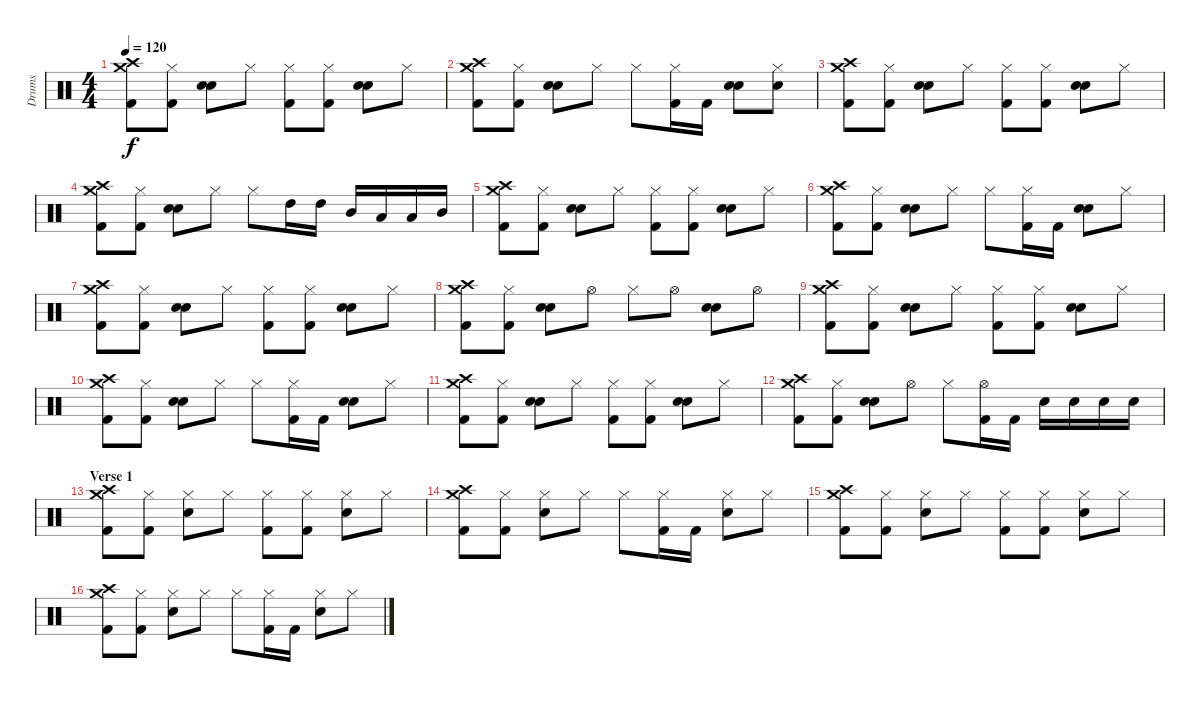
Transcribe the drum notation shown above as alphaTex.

\track ("Drums" "Drums") {instrument percussion}
\staff {score}
\articulation defaults
\ts (4 4)
\tempo 120
\clef neutral
\ks c
("Crash high (hit)" "Crash medium (hit)" "Kick (hit) 2").8{dy f} ("Hi-Hat (closed)" "Kick (hit) 2").8 ("Hand Clap (hit)" "Snare (hit) 2").8 "Hi-Hat (closed)".8 ("Hi-Hat (closed)" "Kick (hit) 2").8 ("Hi-Hat (closed)" "Kick (hit) 2").8 ("Hand Clap (hit)" "Snare (hit) 2").8 "Hi-Hat (closed)".8 |
("Crash high (hit)" "Crash medium (hit)" "Kick (hit) 2").8 ("Hi-Hat (closed)" "Kick (hit) 2").8 ("Hand Clap (hit)" "Snare (hit) 2").8 "Hi-Hat (closed)".8 "Hi-Hat (closed)".8 ("Hi-Hat (closed)" "Kick (hit) 2").16 "Kick (hit) 2".16 ("Hand Clap (hit)" "Snare (hit) 2").8 ("Hi-Hat (closed)" "Snare (hit) 2").8 |
("Crash high (hit)" "Crash medium (hit)" "Kick (hit) 2").8 ("Hi-Hat (closed)" "Kick (hit) 2").8 ("Hand Clap (hit)" "Snare (hit) 2").8 "Hi-Hat (closed)".8 ("Hi-Hat (closed)" "Kick (hit) 2").8 ("Hi-Hat (closed)" "Kick (hit) 2").8 ("Hand Clap (hit)" "Snare (hit) 2").8 "Hi-Hat (closed)".8 |
("Crash high (hit)" "Crash medium (hit)" "Kick (hit) 2").8 ("Hi-Hat (closed)" "Kick (hit) 2").8 ("Hand Clap (hit)" "Snare (hit) 2").8 "Hi-Hat (closed)".8 "Hi-Hat (closed)".8 "High Tom (hit)".16 "High Tom (hit)".16 "Mid Tom (hit)".16 "Low Tom (hit)".16 "Low Tom (hit)".16 "Mid Tom (hit)".16 |
("Crash high (hit)" "Crash medium (hit)" "Kick (hit) 2").8 ("Hi-Hat (closed)" "Kick (hit) 2").8 ("Hand Clap (hit)" "Snare (hit) 2").8 "Hi-Hat (closed)".8 ("Hi-Hat (closed)" "Kick (hit) 2").8 ("Hi-Hat (closed)" "Kick (hit) 2").8 ("Hand Clap (hit)" "Snare (hit) 2").8 "Hi-Hat (closed)".8 |
("Crash high (hit)" "Crash medium (hit)" "Kick (hit) 2").8 ("Hi-Hat (closed)" "Kick (hit) 2").8 ("Hand Clap (hit)" "Snare (hit) 2").8 "Hi-Hat (closed)".8 "Hi-Hat (closed)".8 ("Hi-Hat (closed)" "Kick (hit) 2").16 "Kick (hit) 2".16 ("Hand Clap (hit)" "Snare (hit) 2").8 "Hi-Hat (closed)".8 |
("Crash high (hit)" "Crash medium (hit)" "Kick (hit) 2").8 ("Hi-Hat (closed)" "Kick (hit) 2").8 ("Hand Clap (hit)" "Snare (hit) 2").8 "Hi-Hat (closed)".8 ("Hi-Hat (closed)" "Kick (hit) 2").8 ("Hi-Hat (closed)" "Kick (hit) 2").8 ("Hand Clap (hit)" "Snare (hit) 2").8 "Hi-Hat (closed)".8 |
("Crash high (hit)" "Crash medium (hit)" "Kick (hit) 2").8 ("Hi-Hat (closed)" "Kick (hit) 2").8 ("Hand Clap (hit)" "Snare (hit) 2").8 "Hi-Hat (open)".8 "Hi-Hat (closed)".8 "Hi-Hat (open)".8 ("Hand Clap (hit)" "Snare (hit) 2").8 "Hi-Hat (open)".8 |
("Crash high (hit)" "Crash medium (hit)" "Kick (hit) 2").8 ("Hi-Hat (closed)" "Kick (hit) 2").8 ("Hand Clap (hit)" "Snare (hit) 2").8 "Hi-Hat (closed)".8 ("Hi-Hat (closed)" "Kick (hit) 2").8 ("Hi-Hat (closed)" "Kick (hit) 2").8 ("Hand Clap (hit)" "Snare (hit) 2").8 "Hi-Hat (closed)".8 |
("Crash high (hit)" "Crash medium (hit)" "Kick (hit) 2").8 ("Hi-Hat (closed)" "Kick (hit) 2").8 ("Hand Clap (hit)" "Snare (hit) 2").8 "Hi-Hat (closed)".8 "Hi-Hat (closed)".8 ("Hi-Hat (closed)" "Kick (hit) 2").16 "Kick (hit) 2".16 ("Hand Clap (hit)" "Snare (hit) 2").8 "Hi-Hat (closed)".8 |
("Crash high (hit)" "Crash medium (hit)" "Kick (hit) 2").8 ("Hi-Hat (closed)" "Kick (hit) 2").8 ("Hand Clap (hit)" "Snare (hit) 2").8 "Hi-Hat (closed)".8 ("Hi-Hat (closed)" "Kick (hit) 2").8 ("Hi-Hat (closed)" "Kick (hit) 2").8 ("Hand Clap (hit)" "Snare (hit) 2").8 "Hi-Hat (closed)".8 |
("Crash high (hit)" "Crash medium (hit)" "Kick (hit) 2").8 ("Hi-Hat (closed)" "Kick (hit) 2").8 ("Hand Clap (hit)" "Snare (hit) 2").8 "Hi-Hat (open)".8 "Hi-Hat (closed)".8 ("Hi-Hat (open)" "Kick (hit) 2").16 "Kick (hit) 2".16 "Snare (hit) 2".16 "Snare (hit) 2".16 "Snare (hit) 2".16 "Snare (hit) 2".16 |
\section ("" "Verse 1")
("Crash high (hit)" "Crash medium (hit)" "Kick (hit) 2").8 ("Hi-Hat (closed)" "Kick (hit) 2").8 ("Hi-Hat (closed)" "Snare (hit) 2").8 "Hi-Hat (closed)".8 ("Hi-Hat (closed)" "Kick (hit) 2").8 ("Hi-Hat (closed)" "Kick (hit) 2").8 ("Hi-Hat (closed)" "Snare (hit) 2").8 "Hi-Hat (closed)".8 |
("Crash high (hit)" "Crash medium (hit)" "Kick (hit) 2").8 ("Hi-Hat (closed)" "Kick (hit) 2").8 ("Hi-Hat (closed)" "Snare (hit) 2").8 "Hi-Hat (closed)".8 "Hi-Hat (closed)".8 ("Hi-Hat (closed)" "Kick (hit) 2").16 "Kick (hit) 2".16 ("Hi-Hat (closed)" "Snare (hit) 2").8 "Hi-Hat (closed)".8 |
("Crash high (hit)" "Crash medium (hit)" "Kick (hit) 2").8 ("Hi-Hat (closed)" "Kick (hit) 2").8 ("Hi-Hat (closed)" "Snare (hit) 2").8 "Hi-Hat (closed)".8 ("Hi-Hat (closed)" "Kick (hit) 2").8 ("Hi-Hat (closed)" "Kick (hit) 2").8 ("Hi-Hat (closed)" "Snare (hit) 2").8 "Hi-Hat (closed)".8 |
("Crash high (hit)" "Crash medium (hit)" "Kick (hit) 2").8 ("Hi-Hat (closed)" "Kick (hit) 2").8 ("Hi-Hat (closed)" "Snare (hit) 2").8 "Hi-Hat (closed)".8 "Hi-Hat (closed)".8 ("Hi-Hat (closed)" "Kick (hit) 2").16 "Kick (hit) 2".16 ("Hi-Hat (closed)" "Snare (hit) 2").8 "Hi-Hat (closed)".8
